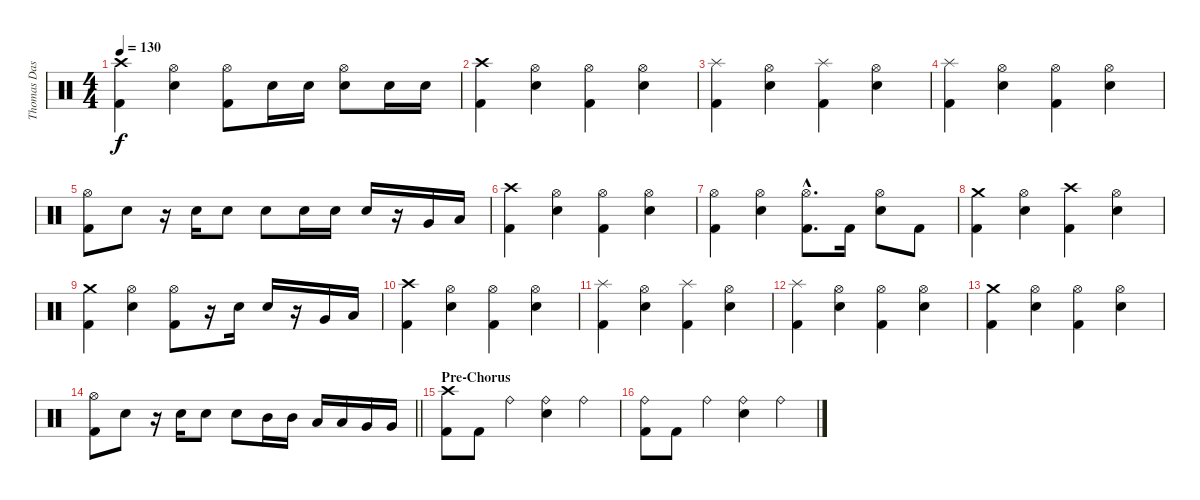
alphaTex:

\track ("Thomas Das Neves (Drums)" "Thomas Das") {instrument percussion}
\staff {score}
\articulation defaults
\ts (4 4)
\tempo 130
\clef neutral
\ks c
("Crash high (hit)" "Kick (hit) 2").4{dy f} ("Hi-Hat (open)" "Snare (hit) 2").4 ("Hi-Hat (open)" "Kick (hit) 2").8 "Snare (hit) 2".16 "Snare (hit) 2".16 ("Hi-Hat (open)" "Snare (hit) 2").8 "Snare (hit) 2".16 "Snare (hit) 2".16 |
("Crash high (hit)" "Kick (hit) 2").4 ("Hi-Hat (open)" "Snare (hit) 2").4 ("Hi-Hat (open)" "Kick (hit) 2").4 ("Hi-Hat (open)" "Snare (hit) 2").4 |
("Splash (hit)" "Kick (hit) 2").4 ("Hi-Hat (open)" "Snare (hit) 2").4 ("Splash (hit)" "Kick (hit) 2").4 ("Hi-Hat (open)" "Snare (hit) 2").4 |
("Splash (hit)" "Kick (hit) 2").4 ("Hi-Hat (open)" "Snare (hit) 2").4 ("Hi-Hat (open)" "Kick (hit) 2").4 ("Hi-Hat (open)" "Snare (hit) 2").4 |
("Hi-Hat (open)" "Kick (hit) 2").8 "Snare (hit) 2".8 r.16 "Snare (hit) 2".16 "Snare (hit) 2".8 "Snare (hit) 2".8 "Snare (hit) 2".16 "Snare (hit) 2".16 "Snare (hit) 2".16 r.16 "Very Low Tom (hit)".16 "Low Floor Tom (hit)".16 |
("Crash high (hit)" "Kick (hit) 2").4 ("Hi-Hat (open)" "Snare (hit) 2").4 ("Hi-Hat (open)" "Kick (hit) 2").4 ("Hi-Hat (open)" "Snare (hit) 2").4 |
("Hi-Hat (open)" "Kick (hit) 2").4 ("Hi-Hat (open)" "Snare (hit) 2").4 ("Hi-Hat (open)"{hac} "Kick (hit) 2"{hac}).8{d} "Kick (hit) 2".16 ("Hi-Hat (open)" "Snare (hit) 2").8 "Kick (hit) 2".8 |
("Crash medium (hit)" "Kick (hit) 2").4 ("Hi-Hat (open)" "Snare (hit) 2").4 ("Crash high (hit)" "Kick (hit) 2").4 ("Hi-Hat (open)" "Snare (hit) 2").4 |
("Crash medium (hit)" "Kick (hit) 2").4 ("Hi-Hat (open)" "Snare (hit) 2").4 ("Hi-Hat (open)" "Kick (hit) 2").8 r.16 "Snare (hit) 2".16 "Snare (hit) 2".16 r.16 "Very Low Tom (hit)".16 "Low Floor Tom (hit)".16 |
("Crash high (hit)" "Kick (hit) 2").4 ("Hi-Hat (open)" "Snare (hit) 2").4 ("Hi-Hat (open)" "Kick (hit) 2").4 ("Hi-Hat (open)" "Snare (hit) 2").4 |
("Splash (hit)" "Kick (hit) 2").4 ("Hi-Hat (open)" "Snare (hit) 2").4 ("Splash (hit)" "Kick (hit) 2").4 ("Hi-Hat (open)" "Snare (hit) 2").4 |
("Splash (hit)" "Kick (hit) 2").4 ("Hi-Hat (open)" "Snare (hit) 2").4 ("Hi-Hat (open)" "Kick (hit) 2").4 ("Hi-Hat (open)" "Snare (hit) 2").4 |
("Crash medium (hit)" "Kick (hit) 2").4 ("Hi-Hat (open)" "Snare (hit) 2").4 ("Hi-Hat (open)" "Kick (hit) 2").4 ("Hi-Hat (open)" "Snare (hit) 2").4 |
\barLineRight lightlight
("Hi-Hat (open)" "Kick (hit) 2").8 "Snare (hit) 2".8 r.16 "Snare (hit) 2".16 "Snare (hit) 2".8 "Snare (hit) 2".8 "Mid Tom (hit)".16 "Mid Tom (hit)".16 "Low Tom (hit)".16 "Low Tom (hit)".16 "Very Low Tom (hit)".16 "Very Low Tom (hit)".16 |
\section ("" "Pre-Chorus")
("Crash high (hit)" "Kick (hit) 2").8 "Kick (hit) 2".8 "Ride (bell)".4 ("Ride (bell)" "Snare (hit) 2").4 "Ride (bell)".4 |
("Ride (bell)" "Kick (hit) 2").8 "Kick (hit) 2".8 "Ride (bell)".4 ("Ride (bell)" "Snare (hit) 2").4 "Ride (bell)".4
